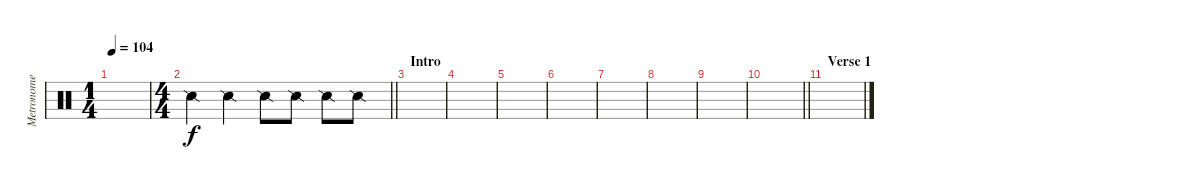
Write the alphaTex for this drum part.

\track ("Metronome" "Metronome") {instrument percussion}
\staff {score}
\articulation defaults
\ts (1 4)
\tempo 104
\clef neutral
\ks c
|
\ts (4 4)
\barLineRight lightlight "Snare (side stick) 2".4 "Snare (side stick) 2".4 "Snare (side stick) 2".8 "Snare (side stick) 2".8 "Snare (side stick) 2".8 "Snare (side stick) 2".8
|
\section ("" "Intro")
|
|
|
|
|
|
|
\barLineRight lightlight
|
\section ("" "Verse 1")
